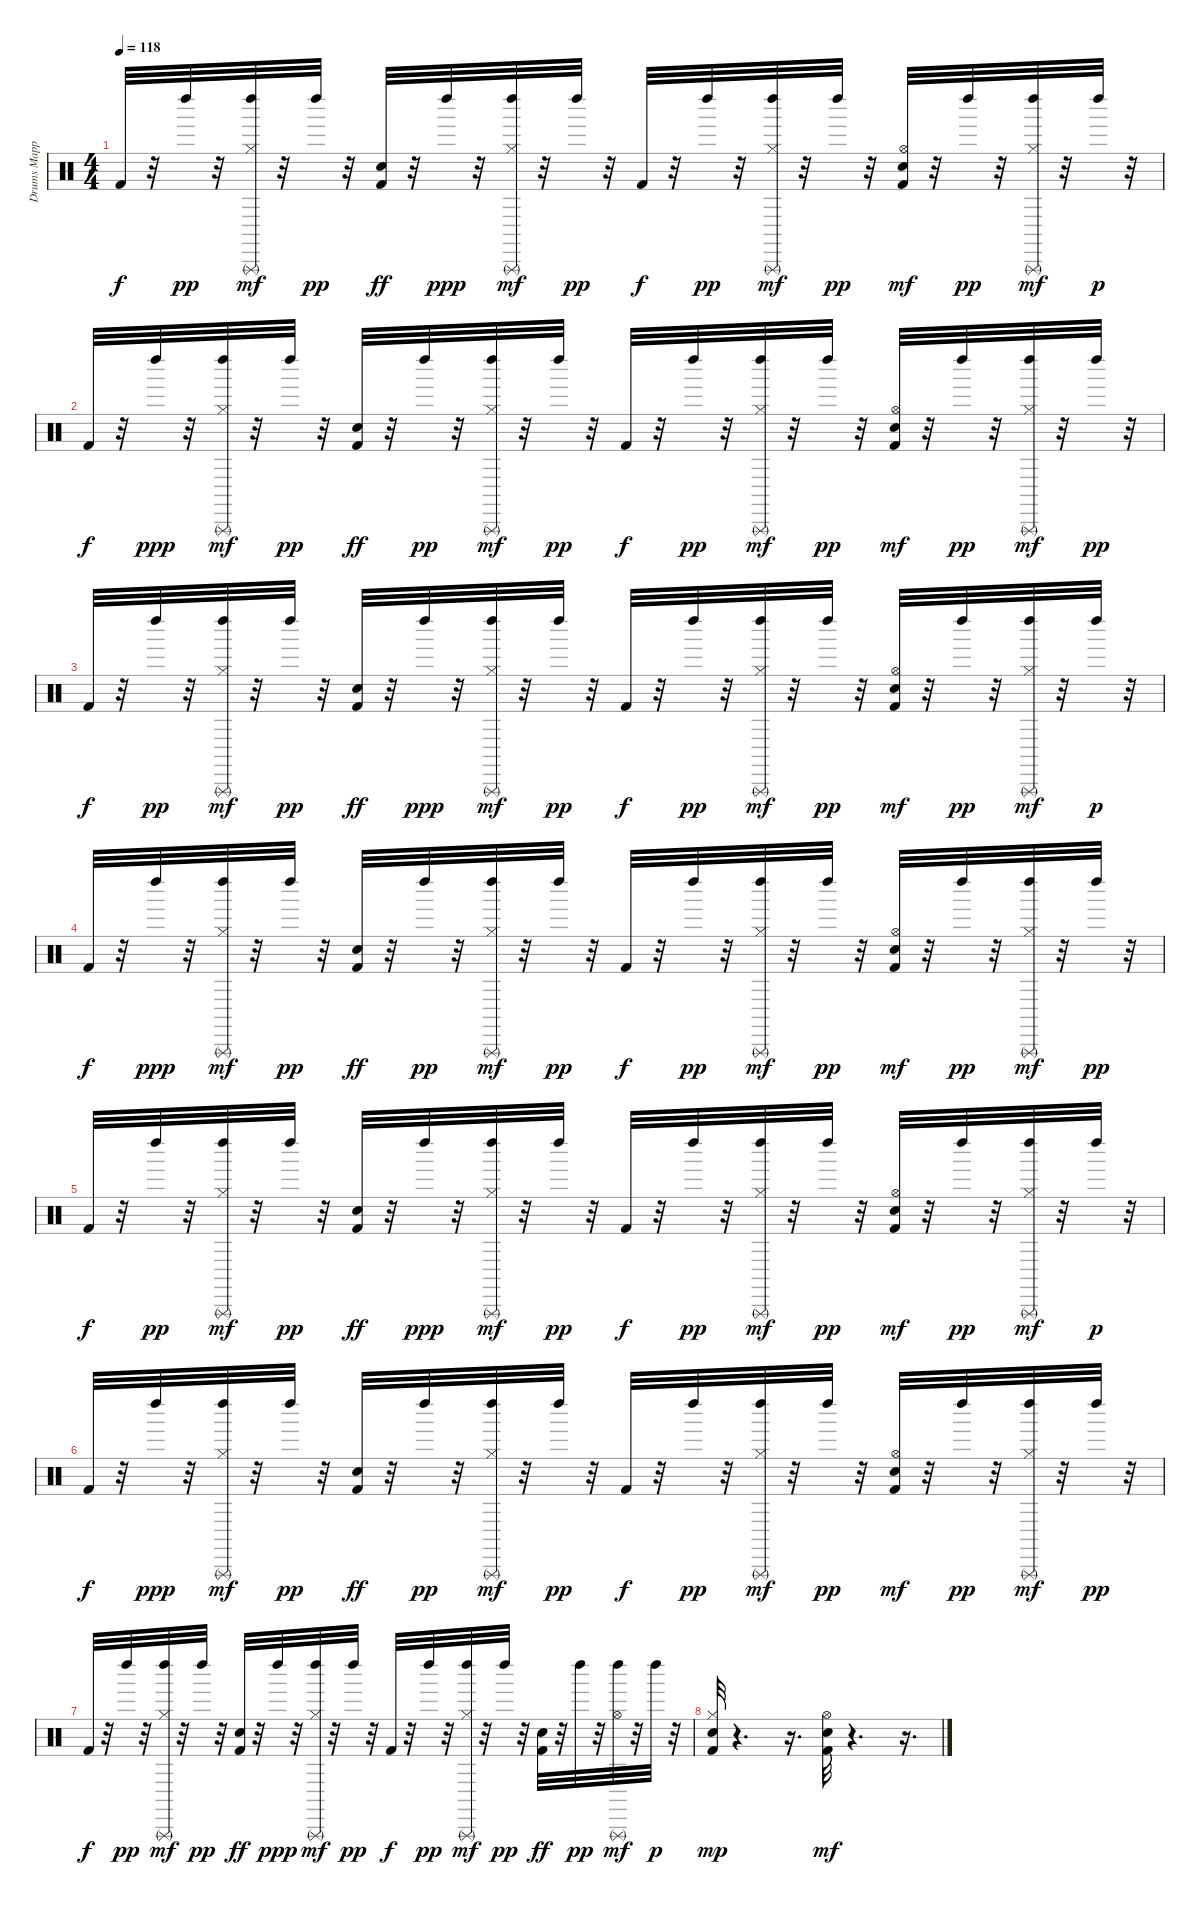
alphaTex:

\track ("Drums Mapped*merged" "Drums Mapp") {instrument percussion}
\staff {score}
\articulation defaults
\ts (4 4)
\tempo 118
\clef neutral
\ks c "Kick (hit) 2".32{dy f}
r.32 "Left Maraca (hit)".32{dy pp} r.32 ("Hi-Hat (closed)" "Left Maraca (hit)" "Triangle (rnute)").32{dy mf} r.32 "Left Maraca (hit)".32{dy pp} r.32 ("Kick (hit) 2" "Snare (hit) 2").32{dy ff} r.32 "Left Maraca (hit)".32{dy ppp} r.32 ("Hi-Hat (closed)" "Left Maraca (hit)" "Triangle (rnute)").32{dy mf} r.32 "Left Maraca (hit)".32{dy pp} r.32 "Kick (hit) 2".32{dy f} r.32 "Left Maraca (hit)".32{dy pp} r.32 ("Hi-Hat (closed)" "Left Maraca (hit)" "Triangle (rnute)").32{dy mf} r.32 "Left Maraca (hit)".32{dy pp} r.32 ("Kick (hit) 2" "Snare (hit) 2" "Hi-Hat (open)").32{dy mf} r.32 "Left Maraca (hit)".32{dy pp} r.32 ("Hi-Hat (closed)" "Left Maraca (hit)" "Triangle (rnute)").32{dy mf} r.32 "Left Maraca (hit)".32{dy p} r.32 |
"Kick (hit) 2".32{dy f} r.32 "Left Maraca (hit)".32{dy ppp} r.32 ("Hi-Hat (closed)" "Left Maraca (hit)" "Triangle (rnute)").32{dy mf} r.32 "Left Maraca (hit)".32{dy pp} r.32 ("Kick (hit) 2" "Snare (hit) 2").32{dy ff} r.32 "Left Maraca (hit)".32{dy pp} r.32 ("Hi-Hat (closed)" "Left Maraca (hit)" "Triangle (rnute)").32{dy mf} r.32 "Left Maraca (hit)".32{dy pp} r.32 "Kick (hit) 2".32{dy f} r.32 "Left Maraca (hit)".32{dy pp} r.32 ("Hi-Hat (closed)" "Left Maraca (hit)" "Triangle (rnute)").32{dy mf} r.32 "Left Maraca (hit)".32{dy pp} r.32 ("Kick (hit) 2" "Snare (hit) 2" "Hi-Hat (open)").32{dy mf} r.32 "Left Maraca (hit)".32{dy pp} r.32 ("Hi-Hat (closed)" "Left Maraca (hit)" "Triangle (rnute)").32{dy mf} r.32 "Left Maraca (hit)".32{dy pp} r.32 |
"Kick (hit) 2".32{dy f} r.32 "Left Maraca (hit)".32{dy pp} r.32 ("Hi-Hat (closed)" "Left Maraca (hit)" "Triangle (rnute)").32{dy mf} r.32 "Left Maraca (hit)".32{dy pp} r.32 ("Kick (hit) 2" "Snare (hit) 2").32{dy ff} r.32 "Left Maraca (hit)".32{dy ppp} r.32 ("Hi-Hat (closed)" "Left Maraca (hit)" "Triangle (rnute)").32{dy mf} r.32 "Left Maraca (hit)".32{dy pp} r.32 "Kick (hit) 2".32{dy f} r.32 "Left Maraca (hit)".32{dy pp} r.32 ("Hi-Hat (closed)" "Left Maraca (hit)" "Triangle (rnute)").32{dy mf} r.32 "Left Maraca (hit)".32{dy pp} r.32 ("Kick (hit) 2" "Snare (hit) 2" "Hi-Hat (open)").32{dy mf} r.32 "Left Maraca (hit)".32{dy pp} r.32 ("Hi-Hat (closed)" "Left Maraca (hit)" "Triangle (rnute)").32{dy mf} r.32 "Left Maraca (hit)".32{dy p} r.32 |
"Kick (hit) 2".32{dy f} r.32 "Left Maraca (hit)".32{dy ppp} r.32 ("Hi-Hat (closed)" "Left Maraca (hit)" "Triangle (rnute)").32{dy mf} r.32 "Left Maraca (hit)".32{dy pp} r.32 ("Kick (hit) 2" "Snare (hit) 2").32{dy ff} r.32 "Left Maraca (hit)".32{dy pp} r.32 ("Hi-Hat (closed)" "Left Maraca (hit)" "Triangle (rnute)").32{dy mf} r.32 "Left Maraca (hit)".32{dy pp} r.32 "Kick (hit) 2".32{dy f} r.32 "Left Maraca (hit)".32{dy pp} r.32 ("Hi-Hat (closed)" "Left Maraca (hit)" "Triangle (rnute)").32{dy mf} r.32 "Left Maraca (hit)".32{dy pp} r.32 ("Kick (hit) 2" "Snare (hit) 2" "Hi-Hat (open)").32{dy mf} r.32 "Left Maraca (hit)".32{dy pp} r.32 ("Hi-Hat (closed)" "Left Maraca (hit)" "Triangle (rnute)").32{dy mf} r.32 "Left Maraca (hit)".32{dy pp} r.32 |
"Kick (hit) 2".32{dy f} r.32 "Left Maraca (hit)".32{dy pp} r.32 ("Hi-Hat (closed)" "Left Maraca (hit)" "Triangle (rnute)").32{dy mf} r.32 "Left Maraca (hit)".32{dy pp} r.32 ("Kick (hit) 2" "Snare (hit) 2").32{dy ff} r.32 "Left Maraca (hit)".32{dy ppp} r.32 ("Hi-Hat (closed)" "Left Maraca (hit)" "Triangle (rnute)").32{dy mf} r.32 "Left Maraca (hit)".32{dy pp} r.32 "Kick (hit) 2".32{dy f} r.32 "Left Maraca (hit)".32{dy pp} r.32 ("Hi-Hat (closed)" "Left Maraca (hit)" "Triangle (rnute)").32{dy mf} r.32 "Left Maraca (hit)".32{dy pp} r.32 ("Kick (hit) 2" "Snare (hit) 2" "Hi-Hat (open)").32{dy mf} r.32 "Left Maraca (hit)".32{dy pp} r.32 ("Hi-Hat (closed)" "Left Maraca (hit)" "Triangle (rnute)").32{dy mf} r.32 "Left Maraca (hit)".32{dy p} r.32 |
"Kick (hit) 2".32{dy f} r.32 "Left Maraca (hit)".32{dy ppp} r.32 ("Hi-Hat (closed)" "Left Maraca (hit)" "Triangle (rnute)").32{dy mf} r.32 "Left Maraca (hit)".32{dy pp} r.32 ("Kick (hit) 2" "Snare (hit) 2").32{dy ff} r.32 "Left Maraca (hit)".32{dy pp} r.32 ("Hi-Hat (closed)" "Left Maraca (hit)" "Triangle (rnute)").32{dy mf} r.32 "Left Maraca (hit)".32{dy pp} r.32 "Kick (hit) 2".32{dy f} r.32 "Left Maraca (hit)".32{dy pp} r.32 ("Hi-Hat (closed)" "Left Maraca (hit)" "Triangle (rnute)").32{dy mf} r.32 "Left Maraca (hit)".32{dy pp} r.32 ("Kick (hit) 2" "Snare (hit) 2" "Hi-Hat (open)").32{dy mf} r.32 "Left Maraca (hit)".32{dy pp} r.32 ("Hi-Hat (closed)" "Left Maraca (hit)" "Triangle (rnute)").32{dy mf} r.32 "Left Maraca (hit)".32{dy pp} r.32 |
"Kick (hit) 2".32{dy f} r.32 "Left Maraca (hit)".32{dy pp} r.32 ("Hi-Hat (closed)" "Left Maraca (hit)" "Triangle (rnute)").32{dy mf} r.32 "Left Maraca (hit)".32{dy pp} r.32 ("Kick (hit) 2" "Snare (hit) 2").32{dy ff} r.32 "Left Maraca (hit)".32{dy ppp} r.32 ("Hi-Hat (closed)" "Left Maraca (hit)" "Triangle (rnute)").32{dy mf} r.32 "Left Maraca (hit)".32{dy pp} r.32 "Kick (hit) 2".32{dy f} r.32 "Left Maraca (hit)".32{dy pp} r.32 ("Hi-Hat (closed)" "Left Maraca (hit)" "Triangle (rnute)").32{dy mf} r.32 "Left Maraca (hit)".32{dy pp} r.32 ("Kick (hit) 2" "Snare (hit) 2").32{dy ff} r.32 "Left Maraca (hit)".32{dy pp} r.32 ("Hi-Hat (open)" "Left Maraca (hit)" "Triangle (rnute)").32{dy mf} r.32 "Left Maraca (hit)".32{dy p} r.32 |
("Kick (hit) 2" "Snare (hit) 2" "Hi-Hat (closed)").32{dy mp} r.4{d} r.16{d} ("Kick (hit) 2" "Snare (hit) 2" "Hi-Hat (open)").32{dy mf} r.4{d} r.16{d}
